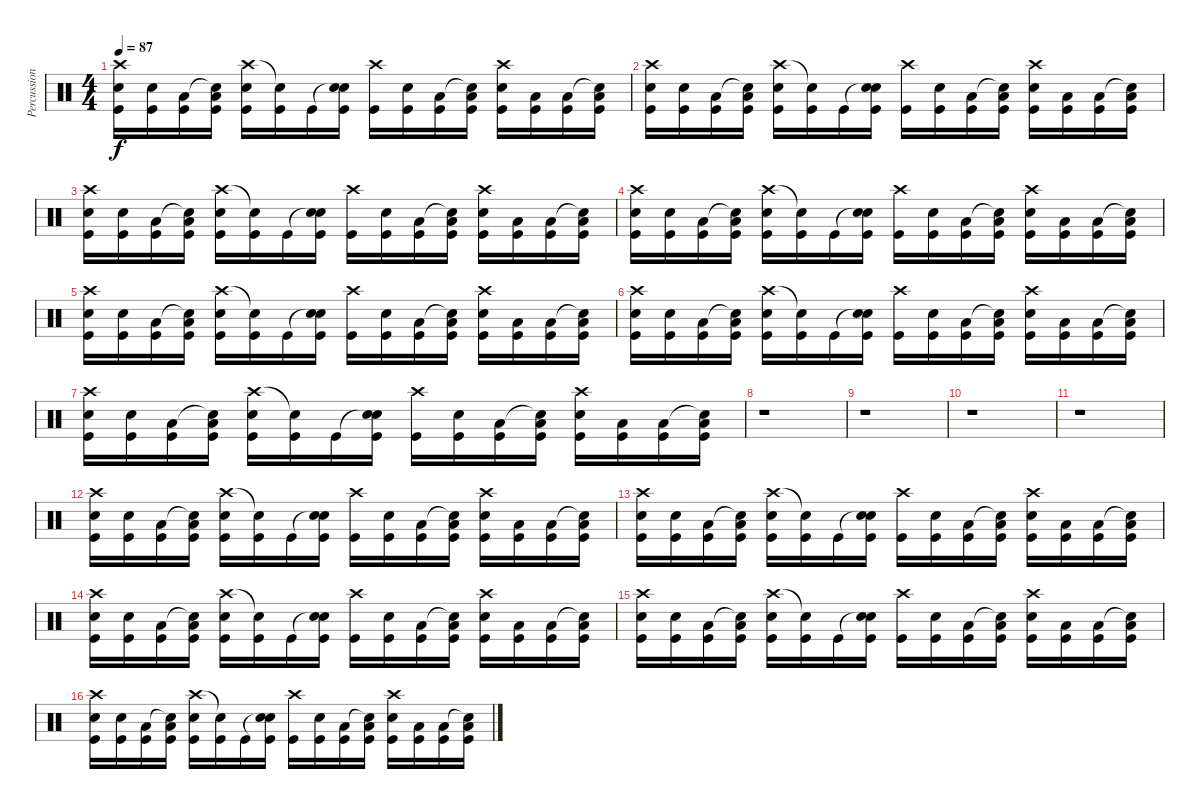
\track ("Percussions" "Percussion") {instrument percussion}
\staff {score}
\articulation defaults
\ts (4 4)
\tempo 87
\clef neutral
\ks c
("Crash high (hit)" "Snare (hit) 2" "Kick (hit)").16{dy f} ("Snare (hit) 2" "Kick (hit)").16 ("Low Floor Tom (hit)" "Kick (hit)").16 ("Snare (hit)"{t} "Low Floor Tom (hit)" "Kick (hit)").16 ("Crash high (hit)" "Snare (hit) 2" "Kick (hit)").16 ("Snare (hit) 2"{t} "Kick (hit)").16 "Kick (hit)".16 ("Snare (hit)"{t} "Snare (hit) 2" "Kick (hit)").16 ("Crash high (hit)" "Kick (hit)").16 ("Snare (hit) 2" "Kick (hit)").16 ("Low Floor Tom (hit)" "Kick (hit)").16 ("Snare (hit)"{t} "Low Floor Tom (hit)" "Kick (hit)").16 ("Crash high (hit)" "Snare (hit) 2" "Kick (hit)").16 ("Low Floor Tom (hit)" "Kick (hit)").16 ("Low Floor Tom (hit)" "Kick (hit)").16 ("Snare (hit)"{t} "Low Floor Tom (hit)" "Kick (hit)").16 |
("Crash high (hit)" "Snare (hit) 2" "Kick (hit)").16 ("Snare (hit) 2" "Kick (hit)").16 ("Low Floor Tom (hit)" "Kick (hit)").16 ("Snare (hit)"{t} "Low Floor Tom (hit)" "Kick (hit)").16 ("Crash high (hit)" "Snare (hit) 2" "Kick (hit)").16 ("Snare (hit) 2"{t} "Kick (hit)").16 "Kick (hit)".16 ("Snare (hit)"{t} "Snare (hit) 2" "Kick (hit)").16 ("Crash high (hit)" "Kick (hit)").16 ("Snare (hit) 2" "Kick (hit)").16 ("Low Floor Tom (hit)" "Kick (hit)").16 ("Snare (hit)"{t} "Low Floor Tom (hit)" "Kick (hit)").16 ("Crash high (hit)" "Snare (hit) 2" "Kick (hit)").16 ("Low Floor Tom (hit)" "Kick (hit)").16 ("Low Floor Tom (hit)" "Kick (hit)").16 ("Snare (hit)"{t} "Low Floor Tom (hit)" "Kick (hit)").16 |
("Crash high (hit)" "Snare (hit) 2" "Kick (hit)").16 ("Snare (hit) 2" "Kick (hit)").16 ("Low Floor Tom (hit)" "Kick (hit)").16 ("Snare (hit)"{t} "Low Floor Tom (hit)" "Kick (hit)").16 ("Crash high (hit)" "Snare (hit) 2" "Kick (hit)").16 ("Snare (hit) 2"{t} "Kick (hit)").16 "Kick (hit)".16 ("Snare (hit)"{t} "Snare (hit) 2" "Kick (hit)").16 ("Crash high (hit)" "Kick (hit)").16 ("Snare (hit) 2" "Kick (hit)").16 ("Low Floor Tom (hit)" "Kick (hit)").16 ("Snare (hit)"{t} "Low Floor Tom (hit)" "Kick (hit)").16 ("Crash high (hit)" "Snare (hit) 2" "Kick (hit)").16 ("Low Floor Tom (hit)" "Kick (hit)").16 ("Low Floor Tom (hit)" "Kick (hit)").16 ("Snare (hit)"{t} "Low Floor Tom (hit)" "Kick (hit)").16 |
("Crash high (hit)" "Snare (hit) 2" "Kick (hit)").16 ("Snare (hit) 2" "Kick (hit)").16 ("Low Floor Tom (hit)" "Kick (hit)").16 ("Snare (hit)"{t} "Low Floor Tom (hit)" "Kick (hit)").16 ("Crash high (hit)" "Snare (hit) 2" "Kick (hit)").16 ("Snare (hit) 2"{t} "Kick (hit)").16 "Kick (hit)".16 ("Snare (hit)"{t} "Snare (hit) 2" "Kick (hit)").16 ("Crash high (hit)" "Kick (hit)").16 ("Snare (hit) 2" "Kick (hit)").16 ("Low Floor Tom (hit)" "Kick (hit)").16 ("Snare (hit)"{t} "Low Floor Tom (hit)" "Kick (hit)").16 ("Crash high (hit)" "Snare (hit) 2" "Kick (hit)").16 ("Low Floor Tom (hit)" "Kick (hit)").16 ("Low Floor Tom (hit)" "Kick (hit)").16 ("Snare (hit)"{t} "Low Floor Tom (hit)" "Kick (hit)").16 |
("Crash high (hit)" "Snare (hit) 2" "Kick (hit)").16 ("Snare (hit) 2" "Kick (hit)").16 ("Low Floor Tom (hit)" "Kick (hit)").16 ("Snare (hit)"{t} "Low Floor Tom (hit)" "Kick (hit)").16 ("Crash high (hit)" "Snare (hit) 2" "Kick (hit)").16 ("Snare (hit) 2"{t} "Kick (hit)").16 "Kick (hit)".16 ("Snare (hit)"{t} "Snare (hit) 2" "Kick (hit)").16 ("Crash high (hit)" "Kick (hit)").16 ("Snare (hit) 2" "Kick (hit)").16 ("Low Floor Tom (hit)" "Kick (hit)").16 ("Snare (hit)"{t} "Low Floor Tom (hit)" "Kick (hit)").16 ("Crash high (hit)" "Snare (hit) 2" "Kick (hit)").16 ("Low Floor Tom (hit)" "Kick (hit)").16 ("Low Floor Tom (hit)" "Kick (hit)").16 ("Snare (hit)"{t} "Low Floor Tom (hit)" "Kick (hit)").16 |
("Crash high (hit)" "Snare (hit) 2" "Kick (hit)").16 ("Snare (hit) 2" "Kick (hit)").16 ("Low Floor Tom (hit)" "Kick (hit)").16 ("Snare (hit)"{t} "Low Floor Tom (hit)" "Kick (hit)").16 ("Crash high (hit)" "Snare (hit) 2" "Kick (hit)").16 ("Snare (hit) 2"{t} "Kick (hit)").16 "Kick (hit)".16 ("Snare (hit)"{t} "Snare (hit) 2" "Kick (hit)").16 ("Crash high (hit)" "Kick (hit)").16 ("Snare (hit) 2" "Kick (hit)").16 ("Low Floor Tom (hit)" "Kick (hit)").16 ("Snare (hit)"{t} "Low Floor Tom (hit)" "Kick (hit)").16 ("Crash high (hit)" "Snare (hit) 2" "Kick (hit)").16 ("Low Floor Tom (hit)" "Kick (hit)").16 ("Low Floor Tom (hit)" "Kick (hit)").16 ("Snare (hit)"{t} "Low Floor Tom (hit)" "Kick (hit)").16 |
("Crash high (hit)" "Snare (hit) 2" "Kick (hit)").16 ("Snare (hit) 2" "Kick (hit)").16 ("Low Floor Tom (hit)" "Kick (hit)").16 ("Snare (hit)"{t} "Low Floor Tom (hit)" "Kick (hit)").16 ("Crash high (hit)" "Snare (hit) 2" "Kick (hit)").16 ("Snare (hit) 2"{t} "Kick (hit)").16 "Kick (hit)".16 ("Snare (hit)"{t} "Snare (hit) 2" "Kick (hit)").16 ("Crash high (hit)" "Kick (hit)").16 ("Snare (hit) 2" "Kick (hit)").16 ("Low Floor Tom (hit)" "Kick (hit)").16 ("Snare (hit)"{t} "Low Floor Tom (hit)" "Kick (hit)").16 ("Crash high (hit)" "Snare (hit) 2" "Kick (hit)").16 ("Low Floor Tom (hit)" "Kick (hit)").16 ("Low Floor Tom (hit)" "Kick (hit)").16 ("Snare (hit)"{t} "Low Floor Tom (hit)" "Kick (hit)").16 |
r.1 |
r.1 |
r.1 |
r.1 |
("Crash high (hit)" "Snare (hit) 2" "Kick (hit)").16 ("Snare (hit) 2" "Kick (hit)").16 ("Low Floor Tom (hit)" "Kick (hit)").16 ("Snare (hit)"{t} "Low Floor Tom (hit)" "Kick (hit)").16 ("Crash high (hit)" "Snare (hit) 2" "Kick (hit)").16 ("Snare (hit) 2"{t} "Kick (hit)").16 "Kick (hit)".16 ("Snare (hit)"{t} "Snare (hit) 2" "Kick (hit)").16 ("Crash high (hit)" "Kick (hit)").16 ("Snare (hit) 2" "Kick (hit)").16 ("Low Floor Tom (hit)" "Kick (hit)").16 ("Snare (hit)"{t} "Low Floor Tom (hit)" "Kick (hit)").16 ("Crash high (hit)" "Snare (hit) 2" "Kick (hit)").16 ("Low Floor Tom (hit)" "Kick (hit)").16 ("Low Floor Tom (hit)" "Kick (hit)").16 ("Snare (hit)"{t} "Low Floor Tom (hit)" "Kick (hit)").16 |
("Crash high (hit)" "Snare (hit) 2" "Kick (hit)").16 ("Snare (hit) 2" "Kick (hit)").16 ("Low Floor Tom (hit)" "Kick (hit)").16 ("Snare (hit)"{t} "Low Floor Tom (hit)" "Kick (hit)").16 ("Crash high (hit)" "Snare (hit) 2" "Kick (hit)").16 ("Snare (hit) 2"{t} "Kick (hit)").16 "Kick (hit)".16 ("Snare (hit)"{t} "Snare (hit) 2" "Kick (hit)").16 ("Crash high (hit)" "Kick (hit)").16 ("Snare (hit) 2" "Kick (hit)").16 ("Low Floor Tom (hit)" "Kick (hit)").16 ("Snare (hit)"{t} "Low Floor Tom (hit)" "Kick (hit)").16 ("Crash high (hit)" "Snare (hit) 2" "Kick (hit)").16 ("Low Floor Tom (hit)" "Kick (hit)").16 ("Low Floor Tom (hit)" "Kick (hit)").16 ("Snare (hit)"{t} "Low Floor Tom (hit)" "Kick (hit)").16 |
("Crash high (hit)" "Snare (hit) 2" "Kick (hit)").16 ("Snare (hit) 2" "Kick (hit)").16 ("Low Floor Tom (hit)" "Kick (hit)").16 ("Snare (hit)"{t} "Low Floor Tom (hit)" "Kick (hit)").16 ("Crash high (hit)" "Snare (hit) 2" "Kick (hit)").16 ("Snare (hit) 2"{t} "Kick (hit)").16 "Kick (hit)".16 ("Snare (hit)"{t} "Snare (hit) 2" "Kick (hit)").16 ("Crash high (hit)" "Kick (hit)").16 ("Snare (hit) 2" "Kick (hit)").16 ("Low Floor Tom (hit)" "Kick (hit)").16 ("Snare (hit)"{t} "Low Floor Tom (hit)" "Kick (hit)").16 ("Crash high (hit)" "Snare (hit) 2" "Kick (hit)").16 ("Low Floor Tom (hit)" "Kick (hit)").16 ("Low Floor Tom (hit)" "Kick (hit)").16 ("Snare (hit)"{t} "Low Floor Tom (hit)" "Kick (hit)").16 |
("Crash high (hit)" "Snare (hit) 2" "Kick (hit)").16 ("Snare (hit) 2" "Kick (hit)").16 ("Low Floor Tom (hit)" "Kick (hit)").16 ("Snare (hit)"{t} "Low Floor Tom (hit)" "Kick (hit)").16 ("Crash high (hit)" "Snare (hit) 2" "Kick (hit)").16 ("Snare (hit) 2"{t} "Kick (hit)").16 "Kick (hit)".16 ("Snare (hit)"{t} "Snare (hit) 2" "Kick (hit)").16 ("Crash high (hit)" "Kick (hit)").16 ("Snare (hit) 2" "Kick (hit)").16 ("Low Floor Tom (hit)" "Kick (hit)").16 ("Snare (hit)"{t} "Low Floor Tom (hit)" "Kick (hit)").16 ("Crash high (hit)" "Snare (hit) 2" "Kick (hit)").16 ("Low Floor Tom (hit)" "Kick (hit)").16 ("Low Floor Tom (hit)" "Kick (hit)").16 ("Snare (hit)"{t} "Low Floor Tom (hit)" "Kick (hit)").16 |
("Crash high (hit)" "Snare (hit) 2" "Kick (hit)").16 ("Snare (hit) 2" "Kick (hit)").16 ("Low Floor Tom (hit)" "Kick (hit)").16 ("Snare (hit)"{t} "Low Floor Tom (hit)" "Kick (hit)").16 ("Crash high (hit)" "Snare (hit) 2" "Kick (hit)").16 ("Snare (hit) 2"{t} "Kick (hit)").16 "Kick (hit)".16 ("Snare (hit)"{t} "Snare (hit) 2" "Kick (hit)").16 ("Crash high (hit)" "Kick (hit)").16 ("Snare (hit) 2" "Kick (hit)").16 ("Low Floor Tom (hit)" "Kick (hit)").16 ("Snare (hit)"{t} "Low Floor Tom (hit)" "Kick (hit)").16 ("Crash high (hit)" "Snare (hit) 2" "Kick (hit)").16 ("Low Floor Tom (hit)" "Kick (hit)").16 ("Low Floor Tom (hit)" "Kick (hit)").16 ("Snare (hit)"{t} "Low Floor Tom (hit)" "Kick (hit)").16
